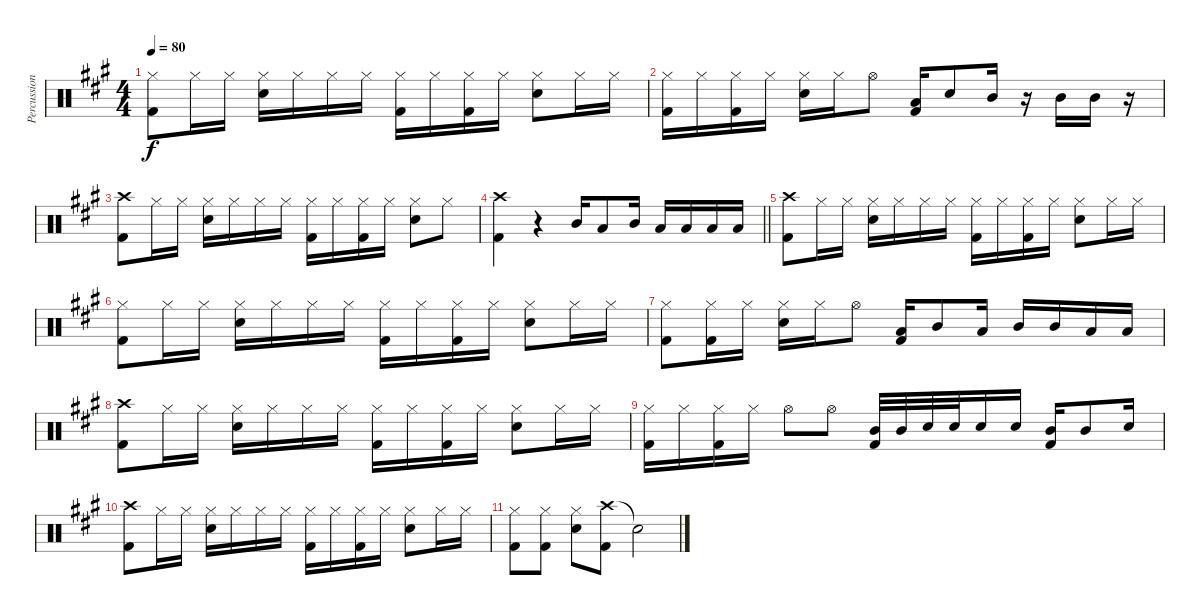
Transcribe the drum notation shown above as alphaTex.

\track ("Percussion" "Percussion") {instrument percussion}
\staff {score}
\articulation defaults
\ts (4 4)
\tempo 80
\clef neutral
\ks a
("Hi-Hat (closed)" "Kick (hit) 2").8{dy f} "Hi-Hat (closed)".16 "Hi-Hat (closed)".16 ("Hi-Hat (closed)" "Snare (hit) 2").16 "Hi-Hat (closed)".16 "Hi-Hat (closed)".16 "Hi-Hat (closed)".16 ("Hi-Hat (closed)" "Kick (hit) 2").16 "Hi-Hat (closed)".16 ("Hi-Hat (closed)" "Kick (hit) 2").16 "Hi-Hat (closed)".16 ("Hi-Hat (closed)" "Snare (hit) 2").8 "Hi-Hat (closed)".16 "Hi-Hat (closed)".16 |
("Hi-Hat (closed)" "Kick (hit) 2").16 "Hi-Hat (closed)".16 ("Hi-Hat (closed)" "Kick (hit) 2").16 "Hi-Hat (closed)".16 ("Hi-Hat (closed)" "Snare (hit) 2").16 "Hi-Hat (closed)".16 "Hi-Hat (open)".8 ("Low Floor Tom (hit)" "Kick (hit) 2").16 "Snare (hit) 2".8 "Mid Tom (hit)".16 r.16 "Mid Tom (hit)".16 "Mid Tom (hit)".16 r.16 |
("Crash high (hit)" "Kick (hit) 2").8 "Hi-Hat (closed)".16 "Hi-Hat (closed)".16 ("Hi-Hat (closed)" "Snare (hit) 2").16 "Hi-Hat (closed)".16 "Hi-Hat (closed)".16 "Hi-Hat (closed)".16 ("Hi-Hat (closed)" "Kick (hit) 2").16 "Hi-Hat (closed)".16 ("Hi-Hat (closed)" "Kick (hit) 2").16 "Hi-Hat (closed)".16 ("Hi-Hat (closed)" "Snare (hit) 2").8 "Hi-Hat (closed)".8 |
\barLineRight lightlight
("Crash high (hit)" "Kick (hit) 2").4 r.4 "Mid Tom (hit)".16 "Low Floor Tom (hit)".8 "Mid Tom (hit)".16 "Low Floor Tom (hit)".16 "Low Floor Tom (hit)".16 "Low Floor Tom (hit)".16 "Low Floor Tom (hit)".16 |
("Crash high (hit)" "Kick (hit) 2").8 "Hi-Hat (closed)".16 "Hi-Hat (closed)".16 ("Hi-Hat (closed)" "Snare (hit) 2").16 "Hi-Hat (closed)".16 "Hi-Hat (closed)".16 "Hi-Hat (closed)".16 ("Hi-Hat (closed)" "Kick (hit) 2").16 "Hi-Hat (closed)".16 ("Hi-Hat (closed)" "Kick (hit) 2").16 "Hi-Hat (closed)".16 ("Hi-Hat (closed)" "Snare (hit) 2").8 "Hi-Hat (closed)".16 "Hi-Hat (closed)".16 |
("Hi-Hat (closed)" "Kick (hit) 2").8 "Hi-Hat (closed)".16 "Hi-Hat (closed)".16 ("Hi-Hat (closed)" "Snare (hit) 2").16 "Hi-Hat (closed)".16 "Hi-Hat (closed)".16 "Hi-Hat (closed)".16 ("Hi-Hat (closed)" "Kick (hit) 2").16 "Hi-Hat (closed)".16 ("Hi-Hat (closed)" "Kick (hit) 2").16 "Hi-Hat (closed)".16 ("Hi-Hat (closed)" "Snare (hit) 2").8 "Hi-Hat (closed)".16 "Hi-Hat (closed)".16 |
("Hi-Hat (closed)" "Kick (hit) 2").8 ("Hi-Hat (closed)" "Kick (hit) 2").16 "Hi-Hat (closed)".16 ("Hi-Hat (closed)" "Snare (hit) 2").16 "Hi-Hat (closed)".16 "Hi-Hat (open)".8 ("Low Floor Tom (hit)" "Kick (hit) 2").16 "Mid Tom (hit)".8 "Low Tom (hit)".16 "Mid Tom (hit)".16 "Mid Tom (hit)".16 "Low Floor Tom (hit)".16 "Low Floor Tom (hit)".16 |
("Crash high (hit)" "Kick (hit) 2").8 "Hi-Hat (closed)".16 "Hi-Hat (closed)".16 ("Hi-Hat (closed)" "Snare (hit) 2").16 "Hi-Hat (closed)".16 "Hi-Hat (closed)".16 "Hi-Hat (closed)".16 ("Hi-Hat (closed)" "Kick (hit) 2").16 "Hi-Hat (closed)".16 ("Hi-Hat (closed)" "Kick (hit) 2").16 "Hi-Hat (closed)".16 ("Hi-Hat (closed)" "Snare (hit) 2").8 "Hi-Hat (closed)".16 "Hi-Hat (closed)".16 |
("Hi-Hat (closed)" "Kick (hit) 2").16 "Hi-Hat (closed)".16 ("Hi-Hat (closed)" "Kick (hit) 2").16 "Hi-Hat (closed)".16 "Hi-Hat (open)".8 "Hi-Hat (open)".8 ("Mid Tom (hit)" "Kick (hit) 2").32 "Mid Tom (hit)".32 "Snare (hit) 2".32 "Snare (hit) 2".32 "Snare (hit) 2".16 "Snare (hit) 2".16 ("Mid Tom (hit)" "Kick (hit) 2").16 "Mid Tom (hit)".8 "Snare (hit) 2".16 |
("Crash high (hit)" "Kick (hit) 2").8 "Hi-Hat (closed)".16 "Hi-Hat (closed)".16 ("Hi-Hat (closed)" "Snare (hit) 2").16 "Hi-Hat (closed)".16 "Hi-Hat (closed)".16 "Hi-Hat (closed)".16 ("Hi-Hat (closed)" "Kick (hit) 2").16 "Hi-Hat (closed)".16 ("Hi-Hat (closed)" "Kick (hit) 2").16 "Hi-Hat (closed)".16 ("Hi-Hat (closed)" "Snare (hit) 2").8 "Hi-Hat (closed)".16 "Hi-Hat (closed)".16 |
("Hi-Hat (closed)" "Kick (hit) 2").8 ("Hi-Hat (closed)" "Kick (hit) 2").8 ("Hi-Hat (closed)" "Snare (hit) 2").8 ("Crash high (hit)" "Kick (hit) 2").8 "Snare (hit)"{t}.2
